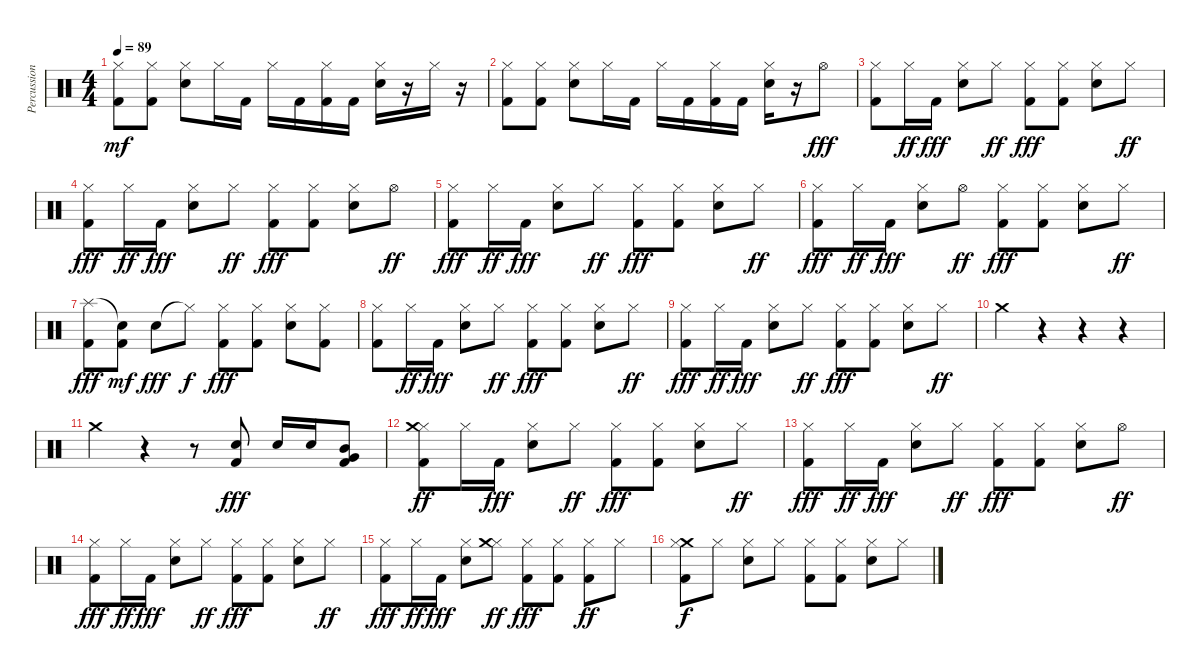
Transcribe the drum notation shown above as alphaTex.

\track ("Percussion" "Percussion") {instrument percussion}
\staff {score}
\articulation defaults
\ts (4 4)
\tempo 89
\clef neutral
\ks c
("Hi-Hat (closed)" "Kick (hit) 2").8{dy mf} ("Hi-Hat (closed)" "Kick (hit) 2").8 ("Hi-Hat (closed)" "Electric Snare (hit)").8 "Hi-Hat (closed)".16 "Kick (hit) 2".16 "Hi-Hat (closed)".16 "Kick (hit) 2".16 ("Hi-Hat (closed)" "Kick (hit) 2").16 "Kick (hit) 2".16 ("Hi-Hat (closed)" "Electric Snare (hit)").16 r.16 "Hi-Hat (closed)".16 r.16 |
("Hi-Hat (closed)" "Kick (hit) 2").8 ("Hi-Hat (closed)" "Kick (hit) 2").8 ("Hi-Hat (closed)" "Electric Snare (hit)").8 "Hi-Hat (closed)".16 "Kick (hit) 2".16 "Hi-Hat (closed)".16 "Kick (hit) 2".16 ("Hi-Hat (closed)" "Kick (hit) 2").16 "Kick (hit) 2".16 ("Hi-Hat (closed)" "Electric Snare (hit)").16 r.16 "Hi-Hat (open)".8{dy fff} |
("Hi-Hat (closed)" "Kick (hit) 2").8 "Hi-Hat (closed)".16{dy ff} "Kick (hit) 2".16{dy fff} ("Hi-Hat (closed)" "Electric Snare (hit)").8 "Hi-Hat (closed)".8{dy ff} ("Hi-Hat (closed)" "Kick (hit) 2").8{dy fff} ("Hi-Hat (closed)" "Kick (hit) 2").8 ("Hi-Hat (closed)" "Electric Snare (hit)").8 "Hi-Hat (closed)".8{dy ff} |
("Hi-Hat (closed)" "Kick (hit) 2").8{dy fff} "Hi-Hat (closed)".16{dy ff} "Kick (hit) 2".16{dy fff} ("Hi-Hat (closed)" "Electric Snare (hit)").8 "Hi-Hat (closed)".8{dy ff} ("Hi-Hat (closed)" "Kick (hit) 2").8{dy fff} ("Hi-Hat (closed)" "Kick (hit) 2").8 ("Hi-Hat (closed)" "Electric Snare (hit)").8 "Hi-Hat (open)".8{dy ff} |
("Hi-Hat (closed)" "Kick (hit) 2").8{dy fff} "Hi-Hat (closed)".16{dy ff} "Kick (hit) 2".16{dy fff} ("Hi-Hat (closed)" "Electric Snare (hit)").8 "Hi-Hat (closed)".8{dy ff} ("Hi-Hat (closed)" "Kick (hit) 2").8{dy fff} ("Hi-Hat (closed)" "Kick (hit) 2").8 ("Hi-Hat (closed)" "Electric Snare (hit)").8 "Hi-Hat (closed)".8{dy ff} |
("Hi-Hat (closed)" "Kick (hit) 2").8{dy fff} "Hi-Hat (closed)".16{dy ff} "Kick (hit) 2".16{dy fff} ("Hi-Hat (closed)" "Electric Snare (hit)").8 "Hi-Hat (open)".8{dy ff} ("Hi-Hat (closed)" "Kick (hit) 2").8{dy fff} ("Hi-Hat (closed)" "Kick (hit) 2").8 ("Hi-Hat (closed)" "Electric Snare (hit)").8 "Hi-Hat (closed)".8{dy ff} |
("Splash (hit)" "Kick (hit) 2").8{dy fff} ("Snare (hit)"{t} "Kick (hit) 2").8{dy mf} "Electric Snare (hit)".8{dy fff} "Hi-Hat (closed)"{t}.8{dy f} ("Hi-Hat (closed)" "Kick (hit) 2").8{dy fff} ("Hi-Hat (closed)" "Kick (hit) 2").8 ("Hi-Hat (closed)" "Electric Snare (hit)").8 ("Hi-Hat (closed)" "Kick (hit) 2").8 |
("Hi-Hat (closed)" "Kick (hit) 2").8 "Hi-Hat (closed)".16{dy ff} "Kick (hit) 2".16{dy fff} ("Hi-Hat (closed)" "Electric Snare (hit)").8 "Hi-Hat (closed)".8{dy ff} ("Hi-Hat (closed)" "Kick (hit) 2").8{dy fff} ("Hi-Hat (closed)" "Kick (hit) 2").8 ("Hi-Hat (closed)" "Electric Snare (hit)").8 "Hi-Hat (closed)".8{dy ff} |
("Hi-Hat (closed)" "Kick (hit) 2").8{dy fff} "Hi-Hat (closed)".16{dy ff} "Kick (hit) 2".16{dy fff} ("Hi-Hat (closed)" "Electric Snare (hit)").8 "Hi-Hat (closed)".8{dy ff} ("Hi-Hat (closed)" "Kick (hit) 2").8{dy fff} ("Hi-Hat (closed)" "Kick (hit) 2").8 ("Hi-Hat (closed)" "Electric Snare (hit)").8 "Hi-Hat (closed)".8{dy ff} |
"Crash medium (hit)".4 r.4 r.4 r.4 |
"Crash medium (hit)".4 r.4 r.8 ("Electric Snare (hit)" "Kick (hit) 2").8{dy fff} "Electric Snare (hit)".16 "Electric Snare (hit)".16 ("Mid Tom (hit)" "Very Low Tom (hit)" "Kick (hit) 2").8 |
("Hi-Hat (closed)" "Kick (hit) 2" "Crash medium (hit)").8{dy ff} "Hi-Hat (closed)".16 "Kick (hit) 2".16{dy fff} ("Hi-Hat (closed)" "Electric Snare (hit)").8 "Hi-Hat (closed)".8{dy ff} ("Hi-Hat (closed)" "Kick (hit) 2").8{dy fff} ("Hi-Hat (closed)" "Kick (hit) 2").8 ("Hi-Hat (closed)" "Electric Snare (hit)").8 "Hi-Hat (closed)".8{dy ff} |
("Hi-Hat (closed)" "Kick (hit) 2").8{dy fff} "Hi-Hat (closed)".16{dy ff} "Kick (hit) 2".16{dy fff} ("Hi-Hat (closed)" "Electric Snare (hit)").8 "Hi-Hat (closed)".8{dy ff} ("Hi-Hat (closed)" "Kick (hit) 2").8{dy fff} ("Hi-Hat (closed)" "Kick (hit) 2").8 ("Hi-Hat (closed)" "Electric Snare (hit)").8 "Hi-Hat (open)".8{dy ff} |
("Hi-Hat (closed)" "Kick (hit) 2").8{dy fff} "Hi-Hat (closed)".16{dy ff} "Kick (hit) 2".16{dy fff} ("Hi-Hat (closed)" "Electric Snare (hit)").8 "Hi-Hat (closed)".8{dy ff} ("Hi-Hat (closed)" "Kick (hit) 2").8{dy fff} ("Hi-Hat (closed)" "Kick (hit) 2").8 ("Hi-Hat (closed)" "Electric Snare (hit)").8 "Hi-Hat (closed)".8{dy ff} |
("Hi-Hat (closed)" "Kick (hit) 2").8{dy fff} "Hi-Hat (closed)".16{dy ff} "Kick (hit) 2".16{dy fff} ("Hi-Hat (closed)" "Electric Snare (hit)").8 ("Hi-Hat (closed)" "Crash medium (hit)").8{dy ff} ("Hi-Hat (closed)" "Kick (hit) 2").8{dy fff} ("Hi-Hat (closed)" "Kick (hit) 2").8 ("Hi-Hat (closed)" "Kick (hit) 2").8{dy ff} "Hi-Hat (closed)".8 |
("Crash medium (hit)" "Kick (hit) 2" "Hi-Hat (closed)").8{dy f} "Hi-Hat (closed)".8 ("Electric Snare (hit)" "Hi-Hat (closed)").8 "Hi-Hat (closed)".8 ("Kick (hit) 2" "Hi-Hat (closed)").8 ("Kick (hit) 2" "Hi-Hat (closed)").8 ("Electric Snare (hit)" "Hi-Hat (closed)").8 "Hi-Hat (closed)".8
